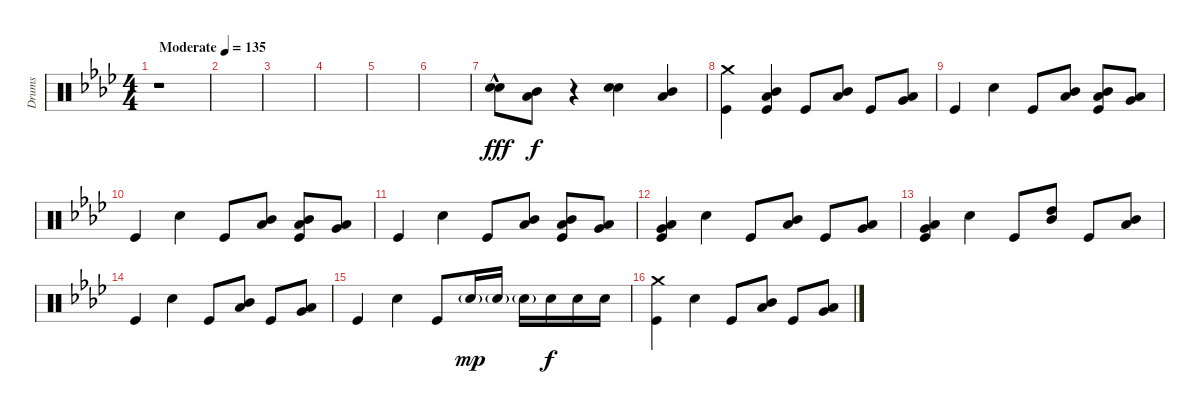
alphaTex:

\track ("Drums" "Drums") {instrument percussion}
\staff {score}
\articulation defaults
\ts (4 4)
\tempo (135 "Moderate")
\clef neutral
\ks ab
r.1{dy fff} |
|
|
|
|
|
("Snare (hit) 2"{hac} "Snare (hit) 2"{hac}).8 ("Low Tom (hit)" "Mid Tom (hit)").8{dy f} r.4 ("Snare (hit) 2" "Snare (hit) 2").4 ("Low Tom (hit)" "Mid Tom (hit)").4 |
("Crash medium (hit)" "Kick (hit)").4 ("Low Tom (hit)" "Mid Tom (hit)" "Kick (hit)").4 "Kick (hit)".8 ("Low Tom (hit)" "Mid Tom (hit)").8 "Kick (hit)".8 ("Very Low Tom (hit)" "Low Tom (hit)").8 |
"Kick (hit)".4 "Snare (hit) 2".4 "Kick (hit)".8 ("Low Tom (hit)" "Mid Tom (hit)").8 ("Low Tom (hit)" "Mid Tom (hit)" "Kick (hit)").8 ("Very Low Tom (hit)" "Low Tom (hit)").8 |
"Kick (hit)".4 "Snare (hit) 2".4 "Kick (hit)".8 ("Low Tom (hit)" "Mid Tom (hit)").8 ("Low Tom (hit)" "Mid Tom (hit)" "Kick (hit)").8 ("Very Low Tom (hit)" "Low Tom (hit)").8 |
"Kick (hit)".4 "Snare (hit) 2".4 "Kick (hit)".8 ("Low Tom (hit)" "Mid Tom (hit)").8 ("Low Tom (hit)" "Mid Tom (hit)" "Kick (hit)").8 ("Very Low Tom (hit)" "Low Tom (hit)").8 |
("Very Low Tom (hit)" "Low Tom (hit)" "Kick (hit)").4 "Snare (hit) 2".4 "Kick (hit)".8 ("Low Tom (hit)" "Mid Tom (hit)").8 "Kick (hit)".8 ("Very Low Tom (hit)" "Low Tom (hit)").8 |
("Very Low Tom (hit)" "Low Tom (hit)" "Kick (hit)").4 "Snare (hit) 2".4 "Kick (hit)".8 ("Mid Tom (hit)" "High Tom (hit)").8 "Kick (hit)".8 ("Low Tom (hit)" "Mid Tom (hit)").8 |
"Kick (hit)".4 "Snare (hit) 2".4 "Kick (hit)".8 ("Low Tom (hit)" "Mid Tom (hit)").8 "Kick (hit)".8 ("Very Low Tom (hit)" "Low Tom (hit)").8 |
"Kick (hit)".4 "Snare (hit) 2".4 "Kick (hit)".8 "Snare (hit) 2"{g}.16{dy mp} "Snare (hit) 2"{g}.16 "Snare (hit) 2"{g}.16 "Snare (hit) 2".16{dy f} "Snare (hit) 2".16 "Snare (hit) 2".16 |
("Crash medium (hit)" "Kick (hit)").4 "Snare (hit) 2".4 "Kick (hit)".8 ("Low Tom (hit)" "Mid Tom (hit)").8 "Kick (hit)".8 ("Very Low Tom (hit)" "Low Tom (hit)").8
